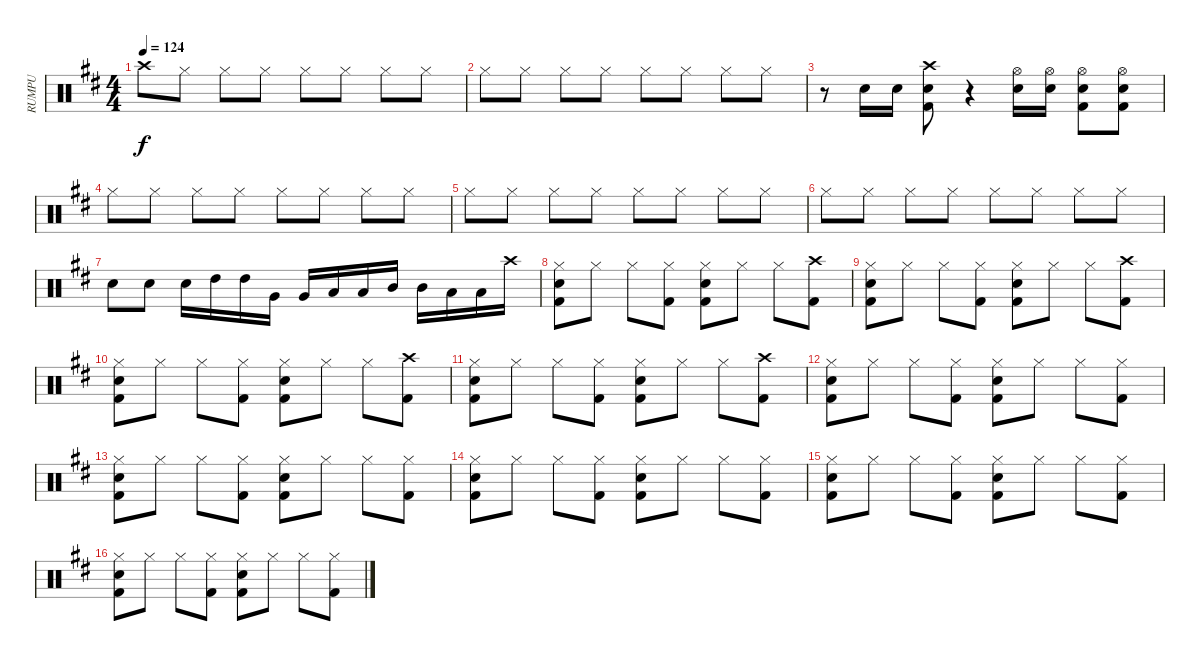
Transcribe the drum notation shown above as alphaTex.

\track ("RUMPU" "RUMPU") {instrument percussion}
\staff {score}
\articulation defaults
\ts (4 4)
\tempo 124
\clef neutral
\ks d "Crash high (hit)".8{dy f} "Hi-Hat (closed)".8 "Hi-Hat (closed)".8 "Hi-Hat (closed)".8 "Hi-Hat (closed)".8 "Hi-Hat (closed)".8 "Hi-Hat (closed)".8 "Hi-Hat (closed)".8
|
"Hi-Hat (closed)".8 "Hi-Hat (closed)".8 "Hi-Hat (closed)".8 "Hi-Hat (closed)".8 "Hi-Hat (closed)".8 "Hi-Hat (closed)".8 "Hi-Hat (closed)".8 "Hi-Hat (closed)".8 |
r.8 "Electric Snare (hit)".16 "Electric Snare (hit)".16 ("Crash high (hit)" "Electric Snare (hit)" "Kick (hit) 2").8 r.4 ("Hi-Hat (open)" "Electric Snare (hit)").16 ("Hi-Hat (open)" "Electric Snare (hit)").16 ("Hi-Hat (open)" "Electric Snare (hit)" "Kick (hit) 2").8 ("Hi-Hat (open)" "Electric Snare (hit)" "Kick (hit) 2").8 |
"Hi-Hat (closed)".8 "Hi-Hat (closed)".8 "Hi-Hat (closed)".8 "Hi-Hat (closed)".8 "Hi-Hat (closed)".8 "Hi-Hat (closed)".8 "Hi-Hat (closed)".8 "Hi-Hat (closed)".8 |
"Hi-Hat (closed)".8 "Hi-Hat (closed)".8 "Hi-Hat (closed)".8 "Hi-Hat (closed)".8 "Hi-Hat (closed)".8 "Hi-Hat (closed)".8 "Hi-Hat (closed)".8 "Hi-Hat (closed)".8 |
"Hi-Hat (closed)".8 "Hi-Hat (closed)".8 "Hi-Hat (closed)".8 "Hi-Hat (closed)".8 "Hi-Hat (closed)".8 "Hi-Hat (closed)".8 "Hi-Hat (closed)".8 "Hi-Hat (closed)".8 |
"Electric Snare (hit)".8 "Electric Snare (hit)".8 "Electric Snare (hit)".16 "High Tom (hit)".16 "High Tom (hit)".16 "Very Low Tom (hit)".16 "Very Low Tom (hit)".16 "Low Tom (hit)".16 "Low Tom (hit)".16 "Mid Tom (hit)".16 "Mid Tom (hit)".16 "Low Floor Tom (hit)".16 "Low Floor Tom (hit)".16 "Crash high (hit)".16 |
("Hi-Hat (closed)" "Kick (hit) 2" "Electric Snare (hit)").8 "Hi-Hat (closed)".8 "Hi-Hat (closed)".8 ("Hi-Hat (closed)" "Kick (hit) 2").8 ("Hi-Hat (closed)" "Kick (hit) 2" "Electric Snare (hit)").8 "Hi-Hat (closed)".8 "Hi-Hat (closed)".8 ("Crash high (hit)" "Kick (hit) 2").8 |
("Hi-Hat (closed)" "Kick (hit) 2" "Electric Snare (hit)").8 "Hi-Hat (closed)".8 "Hi-Hat (closed)".8 ("Hi-Hat (closed)" "Kick (hit) 2").8 ("Hi-Hat (closed)" "Kick (hit) 2" "Electric Snare (hit)").8 "Hi-Hat (closed)".8 "Hi-Hat (closed)".8 ("Crash high (hit)" "Kick (hit) 2").8 |
("Hi-Hat (closed)" "Kick (hit) 2" "Electric Snare (hit)").8 "Hi-Hat (closed)".8 "Hi-Hat (closed)".8 ("Hi-Hat (closed)" "Kick (hit) 2").8 ("Hi-Hat (closed)" "Kick (hit) 2" "Electric Snare (hit)").8 "Hi-Hat (closed)".8 "Hi-Hat (closed)".8 ("Crash high (hit)" "Kick (hit) 2").8 |
("Hi-Hat (closed)" "Kick (hit) 2" "Electric Snare (hit)").8 "Hi-Hat (closed)".8 "Hi-Hat (closed)".8 ("Hi-Hat (closed)" "Kick (hit) 2").8 ("Hi-Hat (closed)" "Kick (hit) 2" "Electric Snare (hit)").8 "Hi-Hat (closed)".8 "Hi-Hat (closed)".8 ("Crash high (hit)" "Kick (hit) 2").8 |
("Hi-Hat (closed)" "Kick (hit) 2" "Electric Snare (hit)").8 "Hi-Hat (closed)".8 "Hi-Hat (closed)".8 ("Hi-Hat (closed)" "Kick (hit) 2").8 ("Hi-Hat (closed)" "Kick (hit) 2" "Electric Snare (hit)").8 "Hi-Hat (closed)".8 "Hi-Hat (closed)".8 ("Hi-Hat (closed)" "Kick (hit) 2").8 |
("Hi-Hat (closed)" "Kick (hit) 2" "Electric Snare (hit)").8 "Hi-Hat (closed)".8 "Hi-Hat (closed)".8 ("Hi-Hat (closed)" "Kick (hit) 2").8 ("Hi-Hat (closed)" "Kick (hit) 2" "Electric Snare (hit)").8 "Hi-Hat (closed)".8 "Hi-Hat (closed)".8 ("Hi-Hat (closed)" "Kick (hit) 2").8 |
("Hi-Hat (closed)" "Kick (hit) 2" "Electric Snare (hit)").8 "Hi-Hat (closed)".8 "Hi-Hat (closed)".8 ("Hi-Hat (closed)" "Kick (hit) 2").8 ("Hi-Hat (closed)" "Kick (hit) 2" "Electric Snare (hit)").8 "Hi-Hat (closed)".8 "Hi-Hat (closed)".8 ("Hi-Hat (closed)" "Kick (hit) 2").8 |
("Hi-Hat (closed)" "Kick (hit) 2" "Electric Snare (hit)").8 "Hi-Hat (closed)".8 "Hi-Hat (closed)".8 ("Hi-Hat (closed)" "Kick (hit) 2").8 ("Hi-Hat (closed)" "Kick (hit) 2" "Electric Snare (hit)").8 "Hi-Hat (closed)".8 "Hi-Hat (closed)".8 ("Hi-Hat (closed)" "Kick (hit) 2").8 |
("Hi-Hat (closed)" "Kick (hit) 2" "Electric Snare (hit)").8 "Hi-Hat (closed)".8 "Hi-Hat (closed)".8 ("Hi-Hat (closed)" "Kick (hit) 2").8 ("Hi-Hat (closed)" "Kick (hit) 2" "Electric Snare (hit)").8 "Hi-Hat (closed)".8 "Hi-Hat (closed)".8 ("Hi-Hat (closed)" "Kick (hit) 2").8
